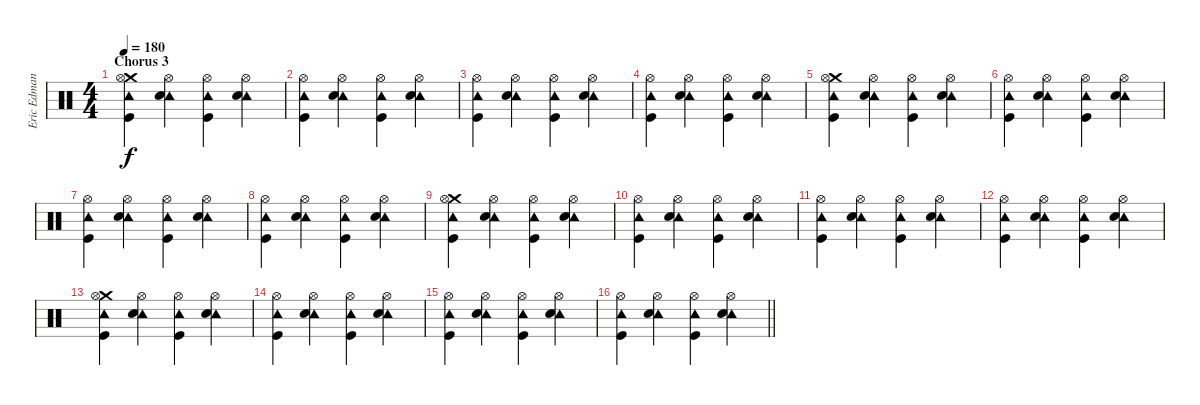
\track ("Eric Edman - Drums" "Eric Edman") {instrument percussion}
\staff {score}
\articulation defaults
\ts (4 4)
\section ("" "Chorus 3")
\tempo 180
\clef neutral
\ks c
("Crash medium (hit)" "Tambourine (hit)" "Kick (hit)" "Hi-Hat (open)").4{dy f} ("Tambourine (hit)" "Snare (hit) 2" "Hi-Hat (open)").4 ("Tambourine (hit)" "Kick (hit)" "Hi-Hat (open)").4 ("Tambourine (hit)" "Snare (hit) 2" "Hi-Hat (open)").4 |
("Tambourine (hit)" "Kick (hit)" "Hi-Hat (open)").4 ("Tambourine (hit)" "Snare (hit) 2" "Hi-Hat (open)").4 ("Tambourine (hit)" "Kick (hit)" "Hi-Hat (open)").4 ("Tambourine (hit)" "Snare (hit) 2" "Hi-Hat (open)").4 |
("Tambourine (hit)" "Kick (hit)" "Hi-Hat (open)").4 ("Tambourine (hit)" "Snare (hit) 2" "Hi-Hat (open)").4 ("Tambourine (hit)" "Kick (hit)" "Hi-Hat (open)").4 ("Tambourine (hit)" "Snare (hit) 2" "Hi-Hat (open)").4 |
("Tambourine (hit)" "Kick (hit)" "Hi-Hat (open)").4 ("Tambourine (hit)" "Snare (hit) 2" "Hi-Hat (open)").4 ("Tambourine (hit)" "Kick (hit)" "Hi-Hat (open)").4 ("Tambourine (hit)" "Snare (hit) 2" "Hi-Hat (open)").4 |
("Crash medium (hit)" "Tambourine (hit)" "Kick (hit)" "Hi-Hat (open)").4 ("Tambourine (hit)" "Snare (hit) 2" "Hi-Hat (open)").4 ("Tambourine (hit)" "Kick (hit)" "Hi-Hat (open)").4 ("Tambourine (hit)" "Snare (hit) 2" "Hi-Hat (open)").4 |
("Tambourine (hit)" "Kick (hit)" "Hi-Hat (open)").4 ("Tambourine (hit)" "Snare (hit) 2" "Hi-Hat (open)").4 ("Tambourine (hit)" "Kick (hit)" "Hi-Hat (open)").4 ("Tambourine (hit)" "Snare (hit) 2" "Hi-Hat (open)").4 |
("Tambourine (hit)" "Kick (hit)" "Hi-Hat (open)").4 ("Tambourine (hit)" "Snare (hit) 2" "Hi-Hat (open)").4 ("Tambourine (hit)" "Kick (hit)" "Hi-Hat (open)").4 ("Tambourine (hit)" "Snare (hit) 2" "Hi-Hat (open)").4 |
("Tambourine (hit)" "Kick (hit)" "Hi-Hat (open)").4 ("Tambourine (hit)" "Snare (hit) 2" "Hi-Hat (open)").4 ("Tambourine (hit)" "Kick (hit)" "Hi-Hat (open)").4 ("Tambourine (hit)" "Snare (hit) 2" "Hi-Hat (open)").4 |
("Crash medium (hit)" "Tambourine (hit)" "Kick (hit)" "Hi-Hat (open)").4 ("Tambourine (hit)" "Snare (hit) 2" "Hi-Hat (open)").4 ("Tambourine (hit)" "Kick (hit)" "Hi-Hat (open)").4 ("Tambourine (hit)" "Snare (hit) 2" "Hi-Hat (open)").4 |
("Tambourine (hit)" "Kick (hit)" "Hi-Hat (open)").4 ("Tambourine (hit)" "Snare (hit) 2" "Hi-Hat (open)").4 ("Tambourine (hit)" "Kick (hit)" "Hi-Hat (open)").4 ("Tambourine (hit)" "Snare (hit) 2" "Hi-Hat (open)").4 |
("Tambourine (hit)" "Kick (hit)" "Hi-Hat (open)").4 ("Tambourine (hit)" "Snare (hit) 2" "Hi-Hat (open)").4 ("Tambourine (hit)" "Kick (hit)" "Hi-Hat (open)").4 ("Tambourine (hit)" "Snare (hit) 2" "Hi-Hat (open)").4 |
("Tambourine (hit)" "Kick (hit)" "Hi-Hat (open)").4 ("Tambourine (hit)" "Snare (hit) 2" "Hi-Hat (open)").4 ("Tambourine (hit)" "Kick (hit)" "Hi-Hat (open)").4 ("Tambourine (hit)" "Snare (hit) 2" "Hi-Hat (open)").4 |
("Crash medium (hit)" "Tambourine (hit)" "Kick (hit)" "Hi-Hat (open)").4 ("Tambourine (hit)" "Snare (hit) 2" "Hi-Hat (open)").4 ("Tambourine (hit)" "Kick (hit)" "Hi-Hat (open)").4 ("Tambourine (hit)" "Snare (hit) 2" "Hi-Hat (open)").4 |
("Tambourine (hit)" "Kick (hit)" "Hi-Hat (open)").4 ("Tambourine (hit)" "Snare (hit) 2" "Hi-Hat (open)").4 ("Tambourine (hit)" "Kick (hit)" "Hi-Hat (open)").4 ("Tambourine (hit)" "Snare (hit) 2" "Hi-Hat (open)").4 |
("Tambourine (hit)" "Kick (hit)" "Hi-Hat (open)").4 ("Tambourine (hit)" "Snare (hit) 2" "Hi-Hat (open)").4 ("Tambourine (hit)" "Kick (hit)" "Hi-Hat (open)").4 ("Tambourine (hit)" "Snare (hit) 2" "Hi-Hat (open)").4 |
\barLineRight lightlight
("Tambourine (hit)" "Kick (hit)" "Hi-Hat (open)").4 ("Tambourine (hit)" "Snare (hit) 2" "Hi-Hat (open)").4 ("Tambourine (hit)" "Kick (hit)" "Hi-Hat (open)").4 ("Tambourine (hit)" "Snare (hit) 2" "Hi-Hat (open)").4
